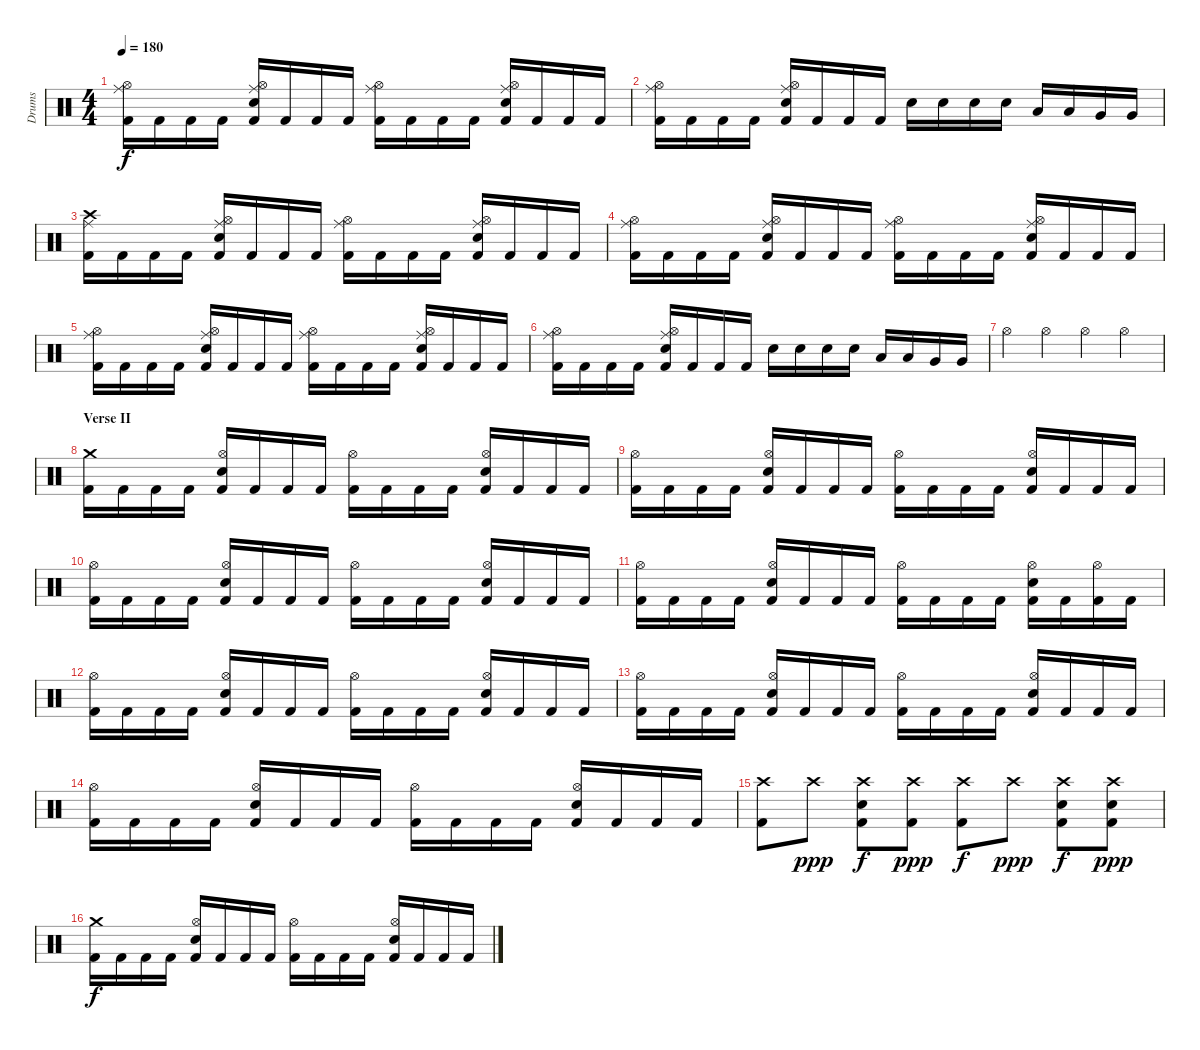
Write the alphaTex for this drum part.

\track ("Drums" "Drums") {instrument percussion}
\staff {score}
\articulation defaults
\ts (4 4)
\tempo 180
\clef neutral
\ks c
("Kick (hit) 2" "Hi-Hat (open)" "Ride (middle)").16{dy f} "Kick (hit) 2".16 "Kick (hit) 2".16 "Kick (hit) 2".16 ("Kick (hit) 2" "Hi-Hat (open)" "Ride (middle)" "Electric Snare (hit)").16 "Kick (hit) 2".16 "Kick (hit) 2".16 "Kick (hit) 2".16 ("Kick (hit) 2" "Hi-Hat (open)" "Ride (middle)").16 "Kick (hit) 2".16 "Kick (hit) 2".16 "Kick (hit) 2".16 ("Kick (hit) 2" "Hi-Hat (open)" "Ride (middle)" "Electric Snare (hit)").16 "Kick (hit) 2".16 "Kick (hit) 2".16 "Kick (hit) 2".16 |
("Kick (hit) 2" "Hi-Hat (open)" "Ride (middle)").16 "Kick (hit) 2".16 "Kick (hit) 2".16 "Kick (hit) 2".16 ("Kick (hit) 2" "Hi-Hat (open)" "Ride (middle)" "Electric Snare (hit)").16 "Kick (hit) 2".16 "Kick (hit) 2".16 "Kick (hit) 2".16 "Electric Snare (hit)".16 "Electric Snare (hit)".16 "Electric Snare (hit)".16 "Electric Snare (hit)".16 "Low Tom (hit)".16 "Low Tom (hit)".16 "Very Low Tom (hit)".16 "Very Low Tom (hit)".16 |
("Kick (hit) 2" "Crash high (hit)" "Ride (middle)").16 "Kick (hit) 2".16 "Kick (hit) 2".16 "Kick (hit) 2".16 ("Kick (hit) 2" "Hi-Hat (open)" "Ride (middle)" "Electric Snare (hit)").16 "Kick (hit) 2".16 "Kick (hit) 2".16 "Kick (hit) 2".16 ("Kick (hit) 2" "Hi-Hat (open)" "Ride (middle)").16 "Kick (hit) 2".16 "Kick (hit) 2".16 "Kick (hit) 2".16 ("Kick (hit) 2" "Hi-Hat (open)" "Ride (middle)" "Electric Snare (hit)").16 "Kick (hit) 2".16 "Kick (hit) 2".16 "Kick (hit) 2".16 |
("Kick (hit) 2" "Hi-Hat (open)" "Ride (middle)").16 "Kick (hit) 2".16 "Kick (hit) 2".16 "Kick (hit) 2".16 ("Kick (hit) 2" "Hi-Hat (open)" "Ride (middle)" "Electric Snare (hit)").16 "Kick (hit) 2".16 "Kick (hit) 2".16 "Kick (hit) 2".16 ("Kick (hit) 2" "Hi-Hat (open)" "Ride (middle)").16 "Kick (hit) 2".16 "Kick (hit) 2".16 "Kick (hit) 2".16 ("Kick (hit) 2" "Hi-Hat (open)" "Ride (middle)" "Electric Snare (hit)").16 "Kick (hit) 2".16 "Kick (hit) 2".16 "Kick (hit) 2".16 |
("Kick (hit) 2" "Hi-Hat (open)" "Ride (middle)").16 "Kick (hit) 2".16 "Kick (hit) 2".16 "Kick (hit) 2".16 ("Kick (hit) 2" "Hi-Hat (open)" "Ride (middle)" "Electric Snare (hit)").16 "Kick (hit) 2".16 "Kick (hit) 2".16 "Kick (hit) 2".16 ("Kick (hit) 2" "Hi-Hat (open)" "Ride (middle)").16 "Kick (hit) 2".16 "Kick (hit) 2".16 "Kick (hit) 2".16 ("Kick (hit) 2" "Hi-Hat (open)" "Ride (middle)" "Electric Snare (hit)").16 "Kick (hit) 2".16 "Kick (hit) 2".16 "Kick (hit) 2".16 |
("Kick (hit) 2" "Hi-Hat (open)" "Ride (middle)").16 "Kick (hit) 2".16 "Kick (hit) 2".16 "Kick (hit) 2".16 ("Kick (hit) 2" "Hi-Hat (open)" "Ride (middle)" "Electric Snare (hit)").16 "Kick (hit) 2".16 "Kick (hit) 2".16 "Kick (hit) 2".16 "Electric Snare (hit)".16 "Electric Snare (hit)".16 "Electric Snare (hit)".16 "Electric Snare (hit)".16 "Low Tom (hit)".16 "Low Tom (hit)".16 "Very Low Tom (hit)".16 "Very Low Tom (hit)".16 |
"Hi-Hat (open)".4 "Hi-Hat (open)".4 "Hi-Hat (open)".4 "Hi-Hat (open)".4 |
\section ("" "Verse II")
("Kick (hit) 2" "Crash medium (hit)").16 "Kick (hit) 2".16 "Kick (hit) 2".16 "Kick (hit) 2".16 ("Kick (hit) 2" "Hi-Hat (open)" "Electric Snare (hit)").16 "Kick (hit) 2".16 "Kick (hit) 2".16 "Kick (hit) 2".16 ("Kick (hit) 2" "Hi-Hat (open)").16 "Kick (hit) 2".16 "Kick (hit) 2".16 "Kick (hit) 2".16 ("Kick (hit) 2" "Hi-Hat (open)" "Electric Snare (hit)").16 "Kick (hit) 2".16 "Kick (hit) 2".16 "Kick (hit) 2".16 |
("Kick (hit) 2" "Hi-Hat (open)").16 "Kick (hit) 2".16 "Kick (hit) 2".16 "Kick (hit) 2".16 ("Kick (hit) 2" "Hi-Hat (open)" "Electric Snare (hit)").16 "Kick (hit) 2".16 "Kick (hit) 2".16 "Kick (hit) 2".16 ("Kick (hit) 2" "Hi-Hat (open)").16 "Kick (hit) 2".16 "Kick (hit) 2".16 "Kick (hit) 2".16 ("Kick (hit) 2" "Hi-Hat (open)" "Electric Snare (hit)").16 "Kick (hit) 2".16 "Kick (hit) 2".16 "Kick (hit) 2".16 |
("Kick (hit) 2" "Hi-Hat (open)").16 "Kick (hit) 2".16 "Kick (hit) 2".16 "Kick (hit) 2".16 ("Kick (hit) 2" "Hi-Hat (open)" "Electric Snare (hit)").16 "Kick (hit) 2".16 "Kick (hit) 2".16 "Kick (hit) 2".16 ("Kick (hit) 2" "Hi-Hat (open)").16 "Kick (hit) 2".16 "Kick (hit) 2".16 "Kick (hit) 2".16 ("Kick (hit) 2" "Hi-Hat (open)" "Electric Snare (hit)").16 "Kick (hit) 2".16 "Kick (hit) 2".16 "Kick (hit) 2".16 |
("Kick (hit) 2" "Hi-Hat (open)").16 "Kick (hit) 2".16 "Kick (hit) 2".16 "Kick (hit) 2".16 ("Kick (hit) 2" "Hi-Hat (open)" "Electric Snare (hit)").16 "Kick (hit) 2".16 "Kick (hit) 2".16 "Kick (hit) 2".16 ("Kick (hit) 2" "Hi-Hat (open)").16 "Kick (hit) 2".16 "Kick (hit) 2".16 "Kick (hit) 2".16 ("Kick (hit) 2" "Hi-Hat (open)" "Electric Snare (hit)").16 "Kick (hit) 2".16 ("Kick (hit) 2" "Hi-Hat (open)").16 "Kick (hit) 2".16 |
("Kick (hit) 2" "Hi-Hat (open)").16 "Kick (hit) 2".16 "Kick (hit) 2".16 "Kick (hit) 2".16 ("Kick (hit) 2" "Hi-Hat (open)" "Electric Snare (hit)").16 "Kick (hit) 2".16 "Kick (hit) 2".16 "Kick (hit) 2".16 ("Kick (hit) 2" "Hi-Hat (open)").16 "Kick (hit) 2".16 "Kick (hit) 2".16 "Kick (hit) 2".16 ("Kick (hit) 2" "Hi-Hat (open)" "Electric Snare (hit)").16 "Kick (hit) 2".16 "Kick (hit) 2".16 "Kick (hit) 2".16 |
("Kick (hit) 2" "Hi-Hat (open)").16 "Kick (hit) 2".16 "Kick (hit) 2".16 "Kick (hit) 2".16 ("Kick (hit) 2" "Hi-Hat (open)" "Electric Snare (hit)").16 "Kick (hit) 2".16 "Kick (hit) 2".16 "Kick (hit) 2".16 ("Kick (hit) 2" "Hi-Hat (open)").16 "Kick (hit) 2".16 "Kick (hit) 2".16 "Kick (hit) 2".16 ("Kick (hit) 2" "Hi-Hat (open)" "Electric Snare (hit)").16 "Kick (hit) 2".16 "Kick (hit) 2".16 "Kick (hit) 2".16 |
("Kick (hit) 2" "Hi-Hat (open)").16 "Kick (hit) 2".16 "Kick (hit) 2".16 "Kick (hit) 2".16 ("Kick (hit) 2" "Hi-Hat (open)" "Electric Snare (hit)").16 "Kick (hit) 2".16 "Kick (hit) 2".16 "Kick (hit) 2".16 ("Kick (hit) 2" "Hi-Hat (open)").16 "Kick (hit) 2".16 "Kick (hit) 2".16 "Kick (hit) 2".16 ("Kick (hit) 2" "Hi-Hat (open)" "Electric Snare (hit)").16 "Kick (hit) 2".16 "Kick (hit) 2".16 "Kick (hit) 2".16 |
("Crash high (hit)" "Kick (hit) 2").8 "Crash high (hit)".8{dy ppp} ("Crash high (hit)" "Kick (hit) 2" "Electric Snare (hit)").8{dy f} ("Crash high (hit)" "Kick (hit) 2").8{dy ppp} ("Crash high (hit)" "Kick (hit) 2").8{dy f} "Crash high (hit)".8{dy ppp} ("Crash high (hit)" "Kick (hit) 2" "Electric Snare (hit)").8{dy f} ("Crash high (hit)" "Kick (hit) 2" "Electric Snare (hit)").8{dy ppp} |
("Kick (hit) 2" "Crash medium (hit)").16{dy f} "Kick (hit) 2".16 "Kick (hit) 2".16 "Kick (hit) 2".16 ("Kick (hit) 2" "Hi-Hat (open)" "Electric Snare (hit)").16 "Kick (hit) 2".16 "Kick (hit) 2".16 "Kick (hit) 2".16 ("Kick (hit) 2" "Hi-Hat (open)").16 "Kick (hit) 2".16 "Kick (hit) 2".16 "Kick (hit) 2".16 ("Kick (hit) 2" "Hi-Hat (open)" "Electric Snare (hit)").16 "Kick (hit) 2".16 "Kick (hit) 2".16 "Kick (hit) 2".16
